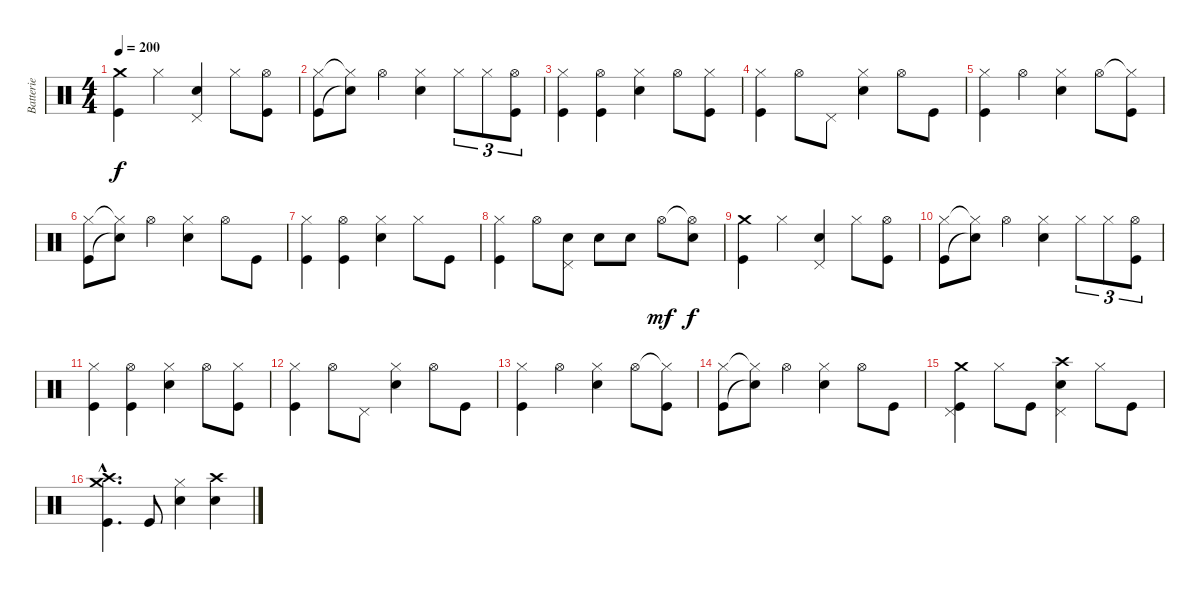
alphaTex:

\track ("Batterie" "Batterie") {instrument percussion}
\staff {score}
\articulation defaults
\ts (4 4)
\tempo 200
\clef neutral
\ks c
("Crash medium (hit)" "Kick (hit)").4{dy f} "Hi-Hat (closed)".4 ("Pedal Hi-Hat (hit)" "Snare (hit) 2").4 "Hi-Hat (closed)".8 ("Hi-Hat (open)" "Kick (hit)").8 |
("Hi-Hat (closed)" "Kick (hit)").8 ("Hi-Hat (closed)"{t} "Snare (hit)"{t}).8 "Hi-Hat (open)".4 ("Hi-Hat (closed)" "Snare (hit) 2").4 "Hi-Hat (closed)".8{tu (3 2)} "Hi-Hat (closed)".8{tu (3 2)} ("Hi-Hat (open)" "Kick (hit)").8{tu (3 2)} |
("Hi-Hat (closed)" "Kick (hit)").4 ("Hi-Hat (open)" "Kick (hit)").4 ("Hi-Hat (closed)" "Snare (hit) 2").4 "Hi-Hat (open)".8 ("Hi-Hat (closed)" "Kick (hit)").8 |
("Hi-Hat (closed)" "Kick (hit)").4 "Hi-Hat (open)".8 "Pedal Hi-Hat (hit)".8 ("Hi-Hat (closed)" "Snare (hit) 2").4 "Hi-Hat (open)".8 "Kick (hit)".8 |
("Hi-Hat (closed)" "Kick (hit)").4 "Hi-Hat (open)".4 ("Hi-Hat (closed)" "Snare (hit) 2").4 "Hi-Hat (open)".8 ("Hi-Hat (closed)"{t} "Kick (hit)").8 |
("Hi-Hat (closed)" "Kick (hit)").8 ("Hi-Hat (closed)"{t} "Snare (hit)"{t}).8 "Hi-Hat (open)".4 ("Hi-Hat (closed)" "Snare (hit) 2").4 "Hi-Hat (open)".8 "Kick (hit)".8 |
("Hi-Hat (closed)" "Kick (hit)").4 ("Hi-Hat (open)" "Kick (hit)").4 ("Hi-Hat (closed)" "Snare (hit) 2").4 "Hi-Hat (closed)".8 "Kick (hit)".8 |
("Hi-Hat (closed)" "Kick (hit)").4 "Hi-Hat (open)".8 ("Pedal Hi-Hat (hit)" "Snare (hit) 2").8 "Snare (hit) 2".8 "Snare (hit) 2".8 "Hi-Hat (open)".8{dy mf} ("Hi-Hat (open)"{t} "Snare (hit) 2").8{dy f} |
("Crash medium (hit)" "Kick (hit)").4 "Hi-Hat (closed)".4 ("Pedal Hi-Hat (hit)" "Snare (hit) 2").4 "Hi-Hat (closed)".8 ("Hi-Hat (open)" "Kick (hit)").8 |
("Hi-Hat (closed)" "Kick (hit)").8 ("Hi-Hat (closed)"{t} "Snare (hit)"{t}).8 "Hi-Hat (open)".4 ("Hi-Hat (closed)" "Snare (hit) 2").4 "Hi-Hat (closed)".8{tu (3 2)} "Hi-Hat (closed)".8{tu (3 2)} ("Hi-Hat (open)" "Kick (hit)").8{tu (3 2)} |
("Hi-Hat (closed)" "Kick (hit)").4 ("Hi-Hat (open)" "Kick (hit)").4 ("Hi-Hat (closed)" "Snare (hit) 2").4 "Hi-Hat (open)".8 ("Hi-Hat (closed)" "Kick (hit)").8 |
("Hi-Hat (closed)" "Kick (hit)").4 "Hi-Hat (open)".8 "Pedal Hi-Hat (hit)".8 ("Hi-Hat (closed)" "Snare (hit) 2").4 "Hi-Hat (open)".8 "Kick (hit)".8 |
("Hi-Hat (closed)" "Kick (hit)").4 "Hi-Hat (open)".4 ("Hi-Hat (closed)" "Snare (hit) 2").4 "Hi-Hat (open)".8 ("Hi-Hat (closed)"{t} "Kick (hit)").8 |
("Hi-Hat (closed)" "Kick (hit)").8 ("Hi-Hat (closed)"{t} "Snare (hit)"{t}).8 "Hi-Hat (open)".4 ("Hi-Hat (closed)" "Snare (hit) 2").4 "Hi-Hat (open)".8 "Kick (hit)".8 |
("Crash medium (hit)" "Pedal Hi-Hat (hit)" "Kick (hit)").4 "Hi-Hat (closed)".8 "Kick (hit)".8 ("Crash high (hit)" "Pedal Hi-Hat (hit)" "Snare (hit) 2").4 "Hi-Hat (closed)".8 "Kick (hit)".8 |
("Crash medium (hit)"{hac} "Crash high (hit)"{hac} "Kick (hit)"{hac}).4{d} "Kick (hit)".8 ("Hi-Hat (closed)" "Snare (hit) 2").4 ("Crash high (hit)" "Snare (hit) 2").4
